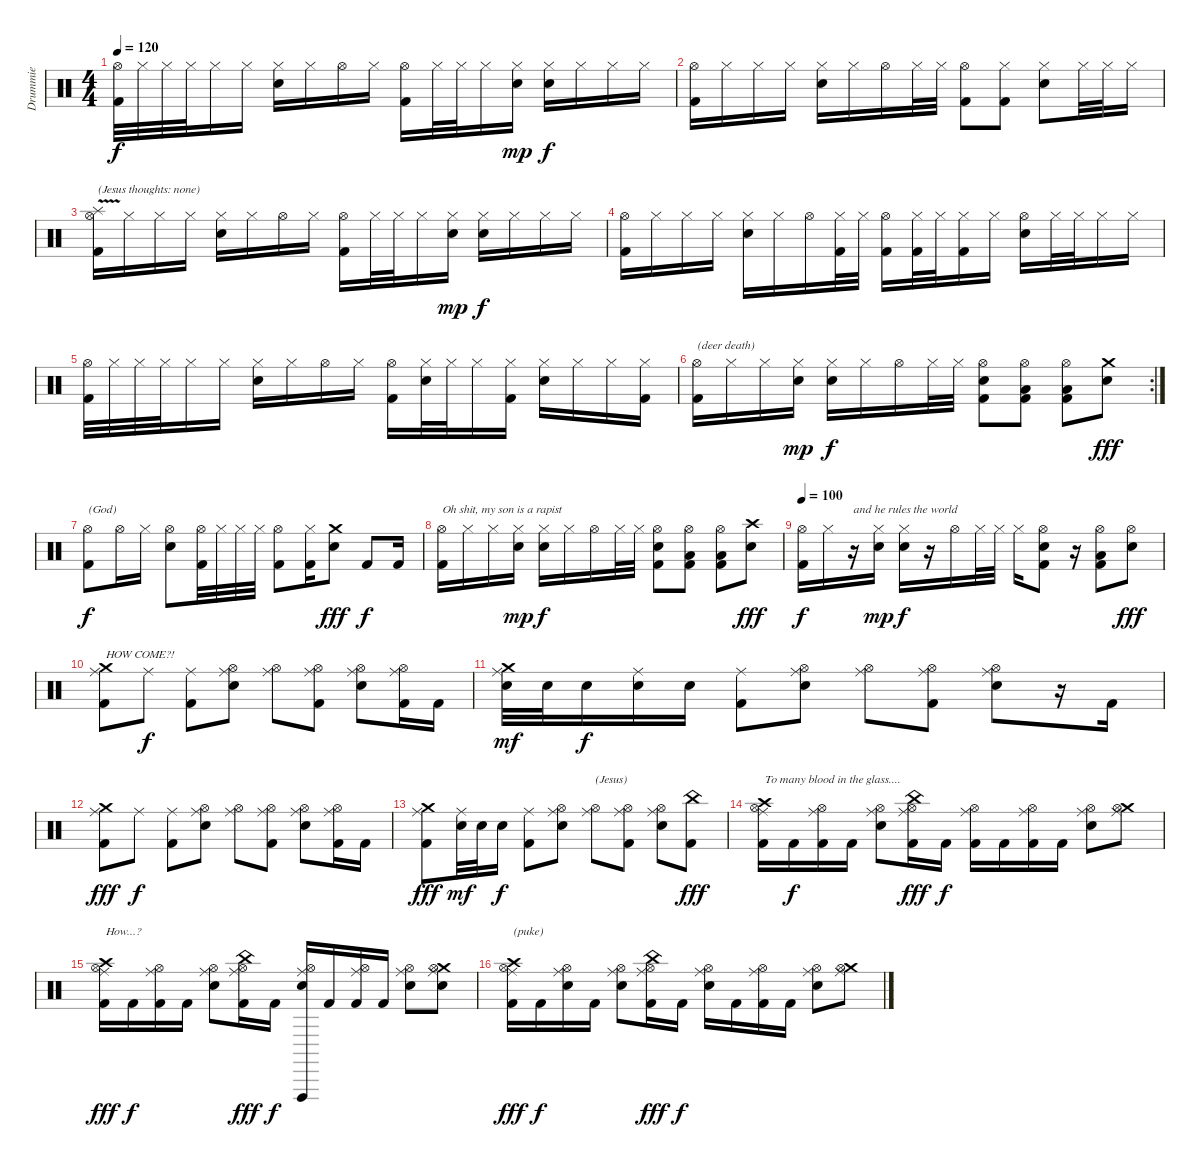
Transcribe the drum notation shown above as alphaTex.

\track ("Drummie" "Drummie") {instrument percussion}
\staff {score}
\articulation defaults
\ts (4 4)
\tempo 120
\clef neutral
\ks c
("Hi-Hat (open)" "Kick (hit) 2").32{dy f} "Hi-Hat (closed)".32 "Hi-Hat (closed)".32 "Hi-Hat (closed)".32 "Hi-Hat (closed)".16 "Hi-Hat (closed)".16 ("Hi-Hat (closed)" "Electric Snare (hit)").16 "Hi-Hat (closed)".16 "Hi-Hat (open)".16 "Hi-Hat (closed)".16 ("Hi-Hat (open)" "Kick (hit) 2").16 "Hi-Hat (closed)".32 "Hi-Hat (closed)".32 "Hi-Hat (closed)".16 ("Hi-Hat (closed)" "Electric Snare (hit)").16{dy mp} ("Hi-Hat (closed)" "Electric Snare (hit)").16{dy f} "Hi-Hat (closed)".16 "Hi-Hat (closed)".16 "Hi-Hat (closed)".16 |
("Hi-Hat (open)" "Kick (hit) 2").16 "Hi-Hat (closed)".16 "Hi-Hat (closed)".16 "Hi-Hat (closed)".16 ("Hi-Hat (closed)" "Electric Snare (hit)").16 "Hi-Hat (closed)".16 "Hi-Hat (open)".16 "Hi-Hat (closed)".32 "Hi-Hat (closed)".32 ("Hi-Hat (open)" "Kick (hit) 2").8 ("Hi-Hat (closed)" "Kick (hit) 2").8 ("Hi-Hat (closed)" "Electric Snare (hit)").8 "Hi-Hat (closed)".32 "Hi-Hat (closed)".32 "Hi-Hat (closed)".16 |
("Splash (hit)"{v} "Hi-Hat (open)" "Kick (hit) 2").16{txt "(Jesus thoughts: none)"} "Hi-Hat (closed)".16 "Hi-Hat (closed)".16 "Hi-Hat (closed)".16 ("Hi-Hat (closed)" "Electric Snare (hit)").16 "Hi-Hat (closed)".16 "Hi-Hat (open)".16 "Hi-Hat (closed)".16 ("Hi-Hat (open)" "Kick (hit) 2").16 "Hi-Hat (closed)".32 "Hi-Hat (closed)".32 "Hi-Hat (closed)".16 ("Hi-Hat (closed)" "Electric Snare (hit)").16{dy mp} ("Hi-Hat (closed)" "Electric Snare (hit)").16{dy f} "Hi-Hat (closed)".16 "Hi-Hat (closed)".16 "Hi-Hat (closed)".16 |
("Hi-Hat (open)" "Kick (hit) 2").16 "Hi-Hat (closed)".16 "Hi-Hat (closed)".16 "Hi-Hat (closed)".16 ("Hi-Hat (closed)" "Electric Snare (hit)").16 "Hi-Hat (closed)".16 "Hi-Hat (open)".16 ("Hi-Hat (closed)" "Kick (hit) 2").32 "Hi-Hat (closed)".32 ("Hi-Hat (open)" "Kick (hit) 2").16 ("Hi-Hat (closed)" "Kick (hit) 2").32 "Hi-Hat (closed)".32 ("Hi-Hat (closed)" "Kick (hit) 2").16 "Hi-Hat (closed)".16 ("Hi-Hat (open)" "Electric Snare (hit)").16 "Hi-Hat (closed)".32 "Hi-Hat (closed)".32 "Hi-Hat (closed)".16 "Hi-Hat (closed)".16 |
("Hi-Hat (open)" "Kick (hit) 2").32 "Hi-Hat (closed)".32 "Hi-Hat (closed)".32 "Hi-Hat (closed)".32 "Hi-Hat (closed)".16 "Hi-Hat (closed)".16 ("Hi-Hat (closed)" "Electric Snare (hit)").16 "Hi-Hat (closed)".16 "Hi-Hat (open)".16 "Hi-Hat (closed)".16 ("Hi-Hat (open)" "Kick (hit) 2").16 ("Hi-Hat (closed)" "Electric Snare (hit)").32 "Hi-Hat (closed)".32 "Hi-Hat (closed)".16 ("Hi-Hat (closed)" "Kick (hit) 2").16 ("Hi-Hat (closed)" "Electric Snare (hit)").16 "Hi-Hat (closed)".16 "Hi-Hat (closed)".16 ("Hi-Hat (closed)" "Kick (hit) 2").16 |
\rc 2
("Hi-Hat (open)" "Kick (hit) 2").16{txt "(deer death)"} "Hi-Hat (closed)".16 "Hi-Hat (closed)".16 ("Hi-Hat (closed)" "Electric Snare (hit)").16{dy mp} ("Hi-Hat (closed)" "Electric Snare (hit)").16{dy f} "Hi-Hat (closed)".16 "Hi-Hat (open)".16 "Hi-Hat (closed)".32 "Hi-Hat (closed)".32 ("Hi-Hat (open)" "Electric Snare (hit)" "Kick (hit) 2").8 ("Hi-Hat (open)" "Low Tom (hit)" "Kick (hit) 2").8 ("Hi-Hat (open)" "Low Tom (hit)" "Kick (hit) 2").8 ("Crash medium (hit)" "Electric Snare (hit)").8{dy fff} |
("Hi-Hat (open)" "Kick (hit) 2").8{txt "(God)" dy f} "Hi-Hat (open)".16 "Hi-Hat (closed)".16 ("Hi-Hat (open)" "Electric Snare (hit)").8 ("Hi-Hat (open)" "Kick (hit) 2").32 "Hi-Hat (closed)".32 "Hi-Hat (closed)".32 "Hi-Hat (closed)".32 ("Hi-Hat (open)" "Kick (hit) 2").8 ("Hi-Hat (closed)" "Kick (hit) 2").16 ("Crash medium (hit)" "Electric Snare (hit)").8{dy fff} "Kick (hit) 2".8{dy f} "Kick (hit) 2".16 |
("Hi-Hat (open)" "Kick (hit) 2").16{txt "Oh shit, my son is a rapist"} "Hi-Hat (closed)".16 "Hi-Hat (closed)".16 ("Hi-Hat (closed)" "Electric Snare (hit)").16{dy mp} ("Hi-Hat (closed)" "Electric Snare (hit)").16{dy f} "Hi-Hat (closed)".16 "Hi-Hat (open)".16 "Hi-Hat (closed)".32 "Hi-Hat (closed)".32 ("Hi-Hat (open)" "Electric Snare (hit)" "Kick (hit) 2").8 ("Hi-Hat (open)" "Low Tom (hit)" "Kick (hit) 2").8 ("Hi-Hat (open)" "Low Tom (hit)" "Kick (hit) 2").8 ("Crash high (hit)" "Electric Snare (hit)").8{dy fff} |
\tempo 100
("Hi-Hat (open)" "Kick (hit) 2").16{dy f} "Hi-Hat (closed)".16 r.16{txt "and he rules the world"} ("Hi-Hat (closed)" "Electric Snare (hit)").16{dy mp} ("Hi-Hat (closed)" "Electric Snare (hit)").16{dy f} r.16 "Hi-Hat (open)".16 "Hi-Hat (closed)".32 "Hi-Hat (closed)".32 "Hi-Hat (closed)".16 ("Hi-Hat (open)" "Electric Snare (hit)" "Kick (hit) 2").8 r.16 ("Hi-Hat (open)" "Low Tom (hit)" "Kick (hit) 2").8 ("Hi-Hat (open)" "Electric Snare (hit)").8{dy fff} |
("Ride (middle)" "Crash medium (hit)" "Kick (hit) 2").8{txt "HOW COME?!"} "Ride (middle)".8{dy f} ("Ride (middle)" "Kick (hit) 2").8 ("Ride (middle)" "Hi-Hat (open)" "Electric Snare (hit)").8 ("Ride (middle)" "Hi-Hat (open)").8 ("Ride (middle)" "Hi-Hat (open)" "Kick (hit) 2").8 ("Ride (middle)" "Hi-Hat (open)" "Electric Snare (hit)").8 ("Ride (middle)" "Hi-Hat (open)" "Kick (hit) 2").16 "Kick (hit) 2".16 |
("Ride (middle)" "Crash medium (hit)" "Electric Snare (hit)").32{dy mf} "Electric Snare (hit)".32 "Electric Snare (hit)".16{dy f} ("Ride (middle)" "Electric Snare (hit)").16 "Electric Snare (hit)".16 ("Ride (middle)" "Kick (hit) 2").8 ("Ride (middle)" "Hi-Hat (open)" "Electric Snare (hit)").8 ("Ride (middle)" "Hi-Hat (open)").8 ("Ride (middle)" "Hi-Hat (open)" "Kick (hit) 2").8 ("Ride (middle)" "Hi-Hat (open)" "Electric Snare (hit)").8 r.16 "Kick (hit) 2".16 |
("Ride (middle)" "Crash medium (hit)" "Kick (hit) 2").8{dy fff} "Ride (middle)".8{dy f} ("Ride (middle)" "Kick (hit) 2").8 ("Ride (middle)" "Hi-Hat (open)" "Electric Snare (hit)").8 ("Ride (middle)" "Hi-Hat (open)").8 ("Ride (middle)" "Hi-Hat (open)" "Kick (hit) 2").8 ("Ride (middle)" "Hi-Hat (open)" "Electric Snare (hit)").8 ("Ride (middle)" "Hi-Hat (open)" "Kick (hit) 2").16 "Kick (hit) 2".16 |
("Ride (middle)" "Crash medium (hit)" "Kick (hit) 2").8{dy fff} ("Ride (middle)" "Electric Snare (hit)").32{dy mf} "Electric Snare (hit)".32 "Electric Snare (hit)".16{dy f} ("Ride (middle)" "Kick (hit) 2").8 ("Ride (middle)" "Hi-Hat (open)" "Electric Snare (hit)").8 ("Ride (middle)" "Hi-Hat (open)").8{txt "(Jesus)"} ("Ride (middle)" "Hi-Hat (open)" "Kick (hit) 2").8 ("Ride (middle)" "Hi-Hat (open)" "Electric Snare (hit)").8 ("China (hit)" "Kick (hit) 2").8{dy fff} |
("Ride (middle)" "Crash high (hit)" "Hi-Hat (open)" "Kick (hit) 2").16{txt "To many blood in the glass...."} "Kick (hit) 2".16{dy f} ("Ride (middle)" "Hi-Hat (open)" "Kick (hit) 2").16 "Kick (hit) 2".16 ("Ride (middle)" "Hi-Hat (open)" "Electric Snare (hit)").8 ("Ride (middle)" "China (hit)" "Hi-Hat (open)" "Kick (hit) 2").16{dy fff} "Kick (hit) 2".16{dy f} ("Ride (middle)" "Hi-Hat (open)" "Kick (hit) 2").16 "Kick (hit) 2".16 ("Ride (middle)" "Hi-Hat (open)" "Kick (hit) 2").16 "Kick (hit) 2".16 ("Ride (middle)" "Hi-Hat (open)" "Electric Snare (hit)").8 ("Ride (middle)" "Crash medium (hit)" "Hi-Hat (open)").8 |
("Ride (middle)" "Crash high (hit)" "Hi-Hat (open)" "Kick (hit) 2").16{txt "How...?" dy fff} "Kick (hit) 2".16{dy f} ("Ride (middle)" "Hi-Hat (open)" "Kick (hit) 2").16 "Kick (hit) 2".16 ("Ride (middle)" "Hi-Hat (open)" "Electric Snare (hit)").8 ("Ride (middle)" "China (hit)" "Hi-Hat (open)" "Kick (hit) 2").16{dy fff} "Kick (hit) 2".16{dy f} ("Ride (middle)" "Vibraslap (hit)" "Hi-Hat (open)" "Electric Snare (hit)").16 "Kick (hit) 2".16 ("Ride (middle)" "Hi-Hat (open)" "Kick (hit) 2").16 "Kick (hit) 2".16 ("Ride (middle)" "Hi-Hat (open)" "Electric Snare (hit)").8 ("Ride (middle)" "Crash medium (hit)" "Hi-Hat (open)" "Electric Snare (hit)").8 |
("Ride (middle)" "Crash high (hit)" "Hi-Hat (open)" "Kick (hit) 2").16{txt "(puke)" dy fff} "Kick (hit) 2".16{dy f} ("Ride (middle)" "Hi-Hat (open)" "Electric Snare (hit)").16 "Kick (hit) 2".16 ("Ride (middle)" "Hi-Hat (open)" "Electric Snare (hit)").8 ("Ride (middle)" "China (hit)" "Hi-Hat (open)" "Kick (hit) 2").16{dy fff} "Kick (hit) 2".16{dy f} ("Ride (middle)" "Hi-Hat (open)" "Electric Snare (hit)").16 "Kick (hit) 2".16 ("Ride (middle)" "Hi-Hat (open)" "Kick (hit) 2").16 "Kick (hit) 2".16 ("Ride (middle)" "Hi-Hat (open)" "Electric Snare (hit)").8 ("Ride (middle)" "Crash medium (hit)" "Hi-Hat (open)").8
